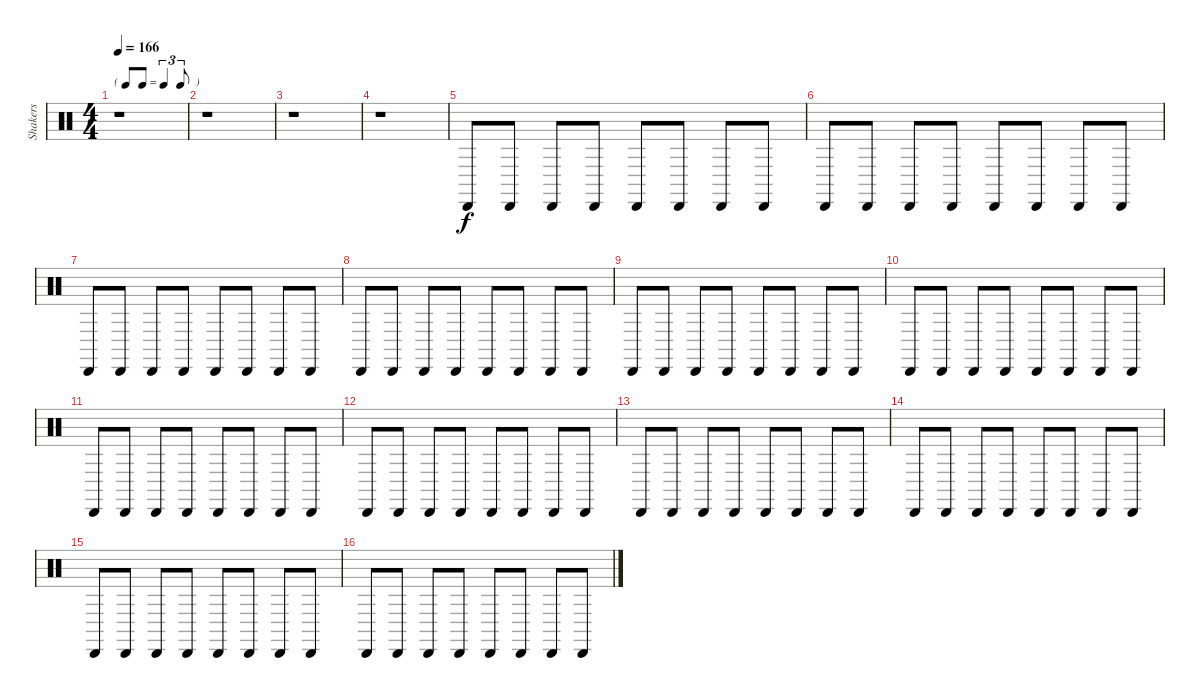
\track ("Shakers" "Shakers") {instrument percussion}
\staff {score}
\articulation defaults
\ts (4 4)
\tf triplet8th
\tempo 166
\clef neutral
\ks c
r.1{dy f} |
r.1 |
r.1 |
r.1 |
"Cabasa (hit)".8 "Cabasa (hit)".8 "Cabasa (hit)".8 "Cabasa (hit)".8 "Cabasa (hit)".8 "Cabasa (hit)".8 "Cabasa (hit)".8 "Cabasa (hit)".8 |
"Cabasa (hit)".8 "Cabasa (hit)".8 "Cabasa (hit)".8 "Cabasa (hit)".8 "Cabasa (hit)".8 "Cabasa (hit)".8 "Cabasa (hit)".8 "Cabasa (hit)".8 |
"Cabasa (hit)".8 "Cabasa (hit)".8 "Cabasa (hit)".8 "Cabasa (hit)".8 "Cabasa (hit)".8 "Cabasa (hit)".8 "Cabasa (hit)".8 "Cabasa (hit)".8 |
"Cabasa (hit)".8 "Cabasa (hit)".8 "Cabasa (hit)".8 "Cabasa (hit)".8 "Cabasa (hit)".8 "Cabasa (hit)".8 "Cabasa (hit)".8 "Cabasa (hit)".8 |
"Cabasa (hit)".8 "Cabasa (hit)".8 "Cabasa (hit)".8 "Cabasa (hit)".8 "Cabasa (hit)".8 "Cabasa (hit)".8 "Cabasa (hit)".8 "Cabasa (hit)".8 |
"Cabasa (hit)".8 "Cabasa (hit)".8 "Cabasa (hit)".8 "Cabasa (hit)".8 "Cabasa (hit)".8 "Cabasa (hit)".8 "Cabasa (hit)".8 "Cabasa (hit)".8 |
"Cabasa (hit)".8 "Cabasa (hit)".8 "Cabasa (hit)".8 "Cabasa (hit)".8 "Cabasa (hit)".8 "Cabasa (hit)".8 "Cabasa (hit)".8 "Cabasa (hit)".8 |
"Cabasa (hit)".8 "Cabasa (hit)".8 "Cabasa (hit)".8 "Cabasa (hit)".8 "Cabasa (hit)".8 "Cabasa (hit)".8 "Cabasa (hit)".8 "Cabasa (hit)".8 |
"Cabasa (hit)".8 "Cabasa (hit)".8 "Cabasa (hit)".8 "Cabasa (hit)".8 "Cabasa (hit)".8 "Cabasa (hit)".8 "Cabasa (hit)".8 "Cabasa (hit)".8 |
"Cabasa (hit)".8 "Cabasa (hit)".8 "Cabasa (hit)".8 "Cabasa (hit)".8 "Cabasa (hit)".8 "Cabasa (hit)".8 "Cabasa (hit)".8 "Cabasa (hit)".8 |
"Cabasa (hit)".8 "Cabasa (hit)".8 "Cabasa (hit)".8 "Cabasa (hit)".8 "Cabasa (hit)".8 "Cabasa (hit)".8 "Cabasa (hit)".8 "Cabasa (hit)".8 |
"Cabasa (hit)".8 "Cabasa (hit)".8 "Cabasa (hit)".8 "Cabasa (hit)".8 "Cabasa (hit)".8 "Cabasa (hit)".8 "Cabasa (hit)".8 "Cabasa (hit)".8
